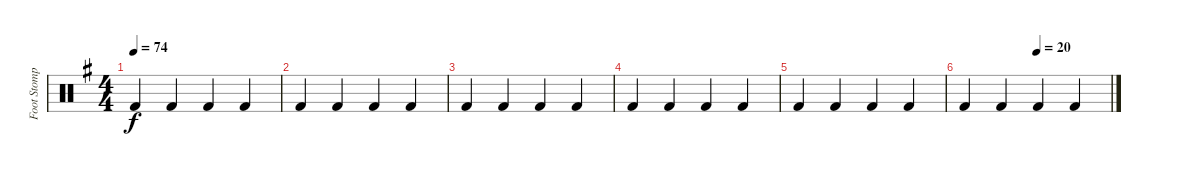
\track ("Foot Stomp" "Foot Stomp") {instrument percussion}
\staff {score}
\articulation defaults
\ts (4 4)
\tempo 74
\clef neutral
\ks g "Kick (hit) 2".4{dy f} "Kick (hit) 2".4 "Kick (hit) 2".4 "Kick (hit) 2".4
|
"Kick (hit) 2".4 "Kick (hit) 2".4 "Kick (hit) 2".4 "Kick (hit) 2".4 |
"Kick (hit) 2".4 "Kick (hit) 2".4 "Kick (hit) 2".4 "Kick (hit) 2".4 |
"Kick (hit) 2".4 "Kick (hit) 2".4 "Kick (hit) 2".4 "Kick (hit) 2".4 |
"Kick (hit) 2".4 "Kick (hit) 2".4 "Kick (hit) 2".4 "Kick (hit) 2".4 |
\tempo (20 0.5)
"Kick (hit) 2".4 "Kick (hit) 2".4 "Kick (hit) 2".4 "Kick (hit) 2".4
